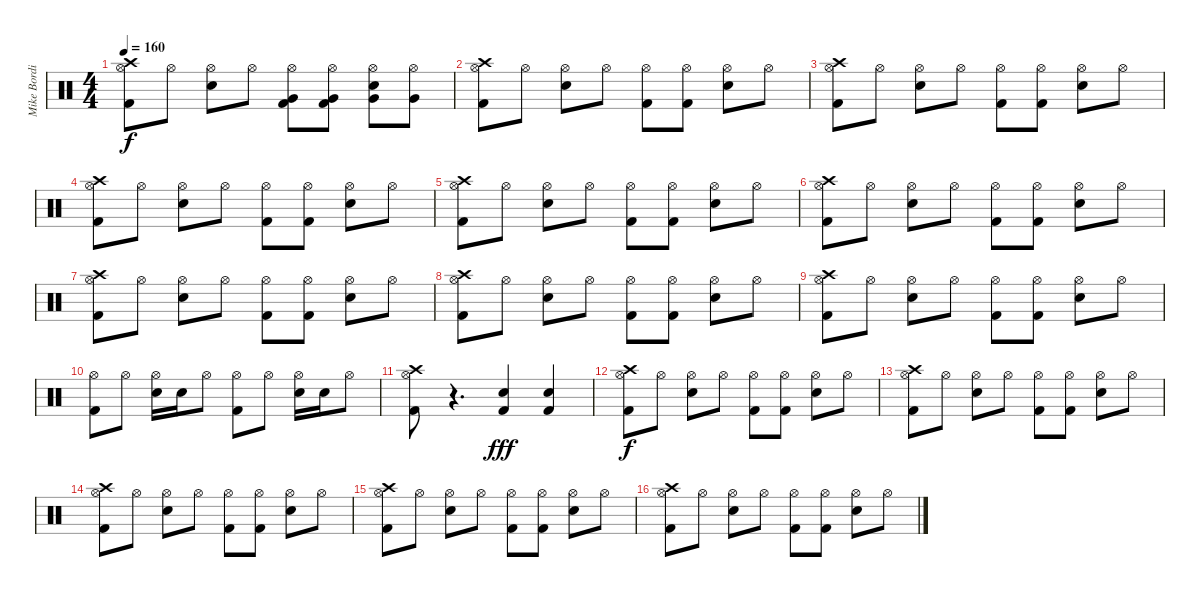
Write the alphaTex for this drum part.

\track ("Mike Bordin - Drums" "Mike Bordi") {instrument percussion}
\staff {score}
\articulation defaults
\ts (4 4)
\tempo 160
\clef neutral
\ks c
("Crash high (hit)" "Hi-Hat (open)" "Kick (hit) 2").8{dy f} "Hi-Hat (open)".8 ("Hi-Hat (open)" "Snare (hit) 2").8 "Hi-Hat (open)".8 ("Hi-Hat (open)" "Very Low Tom (hit)" "Kick (hit) 2").8 ("Hi-Hat (open)" "Very Low Tom (hit)" "Kick (hit) 2").8 ("Hi-Hat (open)" "Snare (hit) 2" "Very Low Tom (hit)").8 ("Hi-Hat (open)" "Very Low Tom (hit)").8 |
("Crash high (hit)" "Hi-Hat (open)" "Kick (hit) 2").8 "Hi-Hat (open)".8 ("Hi-Hat (open)" "Snare (hit) 2").8 "Hi-Hat (open)".8 ("Hi-Hat (open)" "Kick (hit) 2").8 ("Hi-Hat (open)" "Kick (hit) 2").8 ("Hi-Hat (open)" "Snare (hit) 2").8 "Hi-Hat (open)".8 |
("Crash high (hit)" "Hi-Hat (open)" "Kick (hit) 2").8 "Hi-Hat (open)".8 ("Hi-Hat (open)" "Snare (hit) 2").8 "Hi-Hat (open)".8 ("Hi-Hat (open)" "Kick (hit) 2").8 ("Hi-Hat (open)" "Kick (hit) 2").8 ("Hi-Hat (open)" "Snare (hit) 2").8 "Hi-Hat (open)".8 |
("Crash high (hit)" "Hi-Hat (open)" "Kick (hit) 2").8 "Hi-Hat (open)".8 ("Hi-Hat (open)" "Snare (hit) 2").8 "Hi-Hat (open)".8 ("Hi-Hat (open)" "Kick (hit) 2").8 ("Hi-Hat (open)" "Kick (hit) 2").8 ("Hi-Hat (open)" "Snare (hit) 2").8 "Hi-Hat (open)".8 |
("Crash high (hit)" "Hi-Hat (open)" "Kick (hit) 2").8 "Hi-Hat (open)".8 ("Hi-Hat (open)" "Snare (hit) 2").8 "Hi-Hat (open)".8 ("Hi-Hat (open)" "Kick (hit) 2").8 ("Hi-Hat (open)" "Kick (hit) 2").8 ("Hi-Hat (open)" "Snare (hit) 2").8 "Hi-Hat (open)".8 |
("Crash high (hit)" "Hi-Hat (open)" "Kick (hit) 2").8 "Hi-Hat (open)".8 ("Hi-Hat (open)" "Snare (hit) 2").8 "Hi-Hat (open)".8 ("Hi-Hat (open)" "Kick (hit) 2").8 ("Hi-Hat (open)" "Kick (hit) 2").8 ("Hi-Hat (open)" "Snare (hit) 2").8 "Hi-Hat (open)".8 |
("Crash high (hit)" "Hi-Hat (open)" "Kick (hit) 2").8 "Hi-Hat (open)".8 ("Hi-Hat (open)" "Snare (hit) 2").8 "Hi-Hat (open)".8 ("Hi-Hat (open)" "Kick (hit) 2").8 ("Hi-Hat (open)" "Kick (hit) 2").8 ("Hi-Hat (open)" "Snare (hit) 2").8 "Hi-Hat (open)".8 |
("Crash high (hit)" "Hi-Hat (open)" "Kick (hit) 2").8 "Hi-Hat (open)".8 ("Hi-Hat (open)" "Snare (hit) 2").8 "Hi-Hat (open)".8 ("Hi-Hat (open)" "Kick (hit) 2").8 ("Hi-Hat (open)" "Kick (hit) 2").8 ("Hi-Hat (open)" "Snare (hit) 2").8 "Hi-Hat (open)".8 |
("Crash high (hit)" "Hi-Hat (open)" "Kick (hit) 2").8 "Hi-Hat (open)".8 ("Hi-Hat (open)" "Snare (hit) 2").8 "Hi-Hat (open)".8 ("Hi-Hat (open)" "Kick (hit) 2").8 ("Hi-Hat (open)" "Kick (hit) 2").8 ("Hi-Hat (open)" "Snare (hit) 2").8 "Hi-Hat (open)".8 |
("Hi-Hat (open)" "Kick (hit) 2").8 "Hi-Hat (open)".8 ("Hi-Hat (open)" "Snare (hit) 2").16 "Snare (hit) 2".16 "Hi-Hat (open)".8 ("Hi-Hat (open)" "Kick (hit) 2").8 "Hi-Hat (open)".8 ("Hi-Hat (open)" "Snare (hit) 2").16 "Snare (hit) 2".16 "Hi-Hat (open)".8 |
("Crash high (hit)" "Hi-Hat (open)" "Kick (hit) 2").8 r.4{d} ("Snare (hit) 2" "Kick (hit) 2").4{dy fff} ("Snare (hit) 2" "Kick (hit) 2").4 |
("Crash high (hit)" "Hi-Hat (open)" "Kick (hit) 2").8{dy f} "Hi-Hat (open)".8 ("Hi-Hat (open)" "Snare (hit) 2").8 "Hi-Hat (open)".8 ("Hi-Hat (open)" "Kick (hit) 2").8 ("Hi-Hat (open)" "Kick (hit) 2").8 ("Hi-Hat (open)" "Snare (hit) 2").8 "Hi-Hat (open)".8 |
("Crash high (hit)" "Hi-Hat (open)" "Kick (hit) 2").8 "Hi-Hat (open)".8 ("Hi-Hat (open)" "Snare (hit) 2").8 "Hi-Hat (open)".8 ("Hi-Hat (open)" "Kick (hit) 2").8 ("Hi-Hat (open)" "Kick (hit) 2").8 ("Hi-Hat (open)" "Snare (hit) 2").8 "Hi-Hat (open)".8 |
("Crash high (hit)" "Hi-Hat (open)" "Kick (hit) 2").8 "Hi-Hat (open)".8 ("Hi-Hat (open)" "Snare (hit) 2").8 "Hi-Hat (open)".8 ("Hi-Hat (open)" "Kick (hit) 2").8 ("Hi-Hat (open)" "Kick (hit) 2").8 ("Hi-Hat (open)" "Snare (hit) 2").8 "Hi-Hat (open)".8 |
("Crash high (hit)" "Hi-Hat (open)" "Kick (hit) 2").8 "Hi-Hat (open)".8 ("Hi-Hat (open)" "Snare (hit) 2").8 "Hi-Hat (open)".8 ("Hi-Hat (open)" "Kick (hit) 2").8 ("Hi-Hat (open)" "Kick (hit) 2").8 ("Hi-Hat (open)" "Snare (hit) 2").8 "Hi-Hat (open)".8 |
("Crash high (hit)" "Hi-Hat (open)" "Kick (hit) 2").8 "Hi-Hat (open)".8 ("Hi-Hat (open)" "Snare (hit) 2").8 "Hi-Hat (open)".8 ("Hi-Hat (open)" "Kick (hit) 2").8 ("Hi-Hat (open)" "Kick (hit) 2").8 ("Hi-Hat (open)" "Snare (hit) 2").8 "Hi-Hat (open)".8
